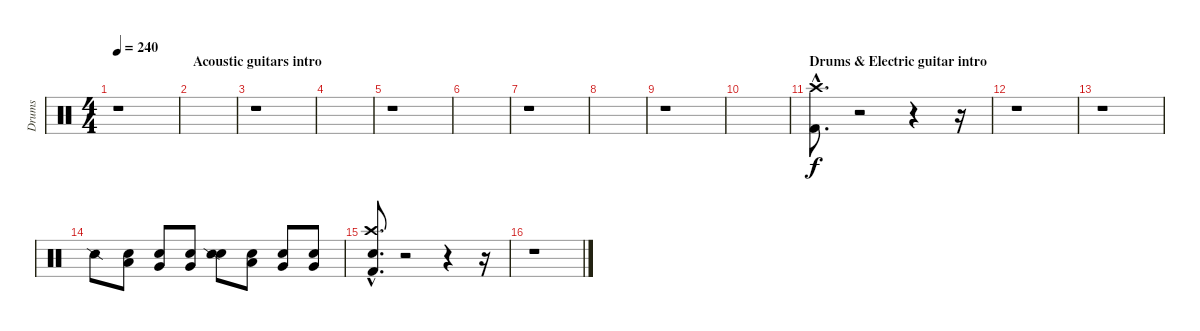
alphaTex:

\track ("Drums" "Drums") {instrument percussion}
\staff {score}
\articulation defaults
\ts (4 4)
\tempo 240
\clef neutral
\ks c
r.1{dy f} |
\section ("" "Acoustic guitars intro")
|
r.1 |
|
r.1 |
|
r.1 |
|
r.1 |
|
\section ("" "Drums & Electric guitar intro")
("Kick (hit) 2"{hac} "Crash high (hit)"{hac}).8{d} r.2 r.4 r.16 |
r.1 |
r.1 |
"Snare (side stick) 2".8 ("Snare (hit)" "Low Tom (hit)").8 ("Snare (hit)" "Very Low Tom (hit)").8 ("Snare (hit)" "Very Low Tom (hit)").8 ("Snare (hit)" "Snare (side stick) 2").8 ("Snare (hit)" "Low Tom (hit)").8 ("Snare (hit)" "Very Low Tom (hit)").8 ("Snare (hit)" "Very Low Tom (hit)").8 |
("Snare (hit)"{hac} "Kick (hit) 2"{hac} "Crash high (hit)"{hac}).8{d} r.2 r.4 r.16 |
r.1
